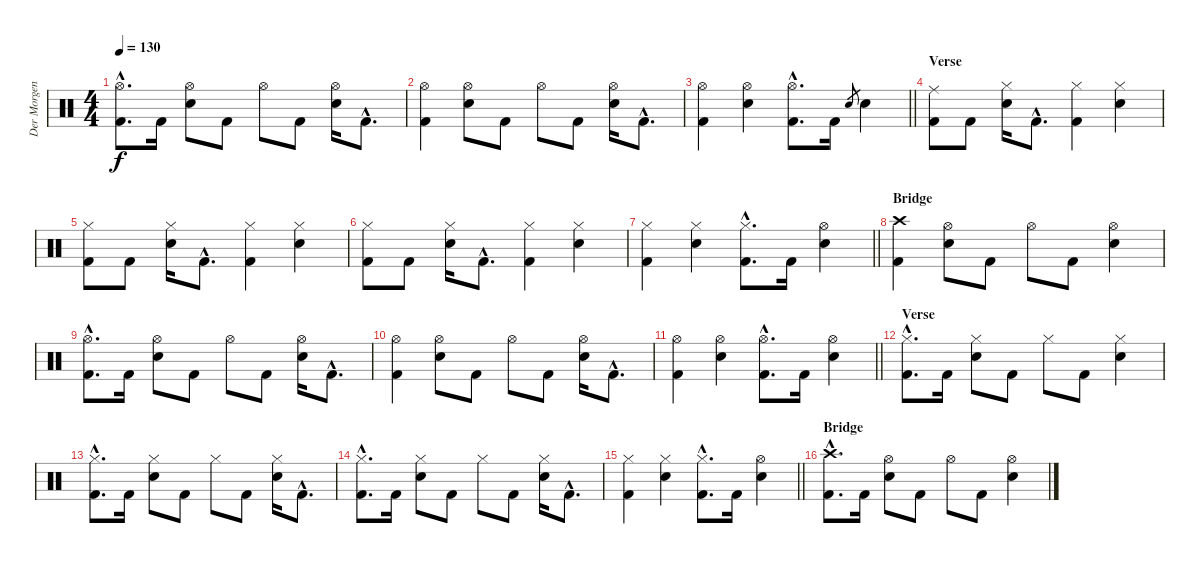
\track ("Der Morgenstern" "Der Morgen") {instrument percussion}
\staff {score}
\articulation defaults
\ts (4 4)
\tempo 130
\clef neutral
\ks c
("Hi-Hat (open)"{hac} "Kick (hit) 2"{hac}).8{d dy f} "Kick (hit) 2".16 ("Hi-Hat (open)" "Electric Snare (hit)").8 "Kick (hit) 2".8 "Hi-Hat (open)".8 "Kick (hit) 2".8 ("Hi-Hat (open)" "Electric Snare (hit)").16 "Kick (hit) 2"{hac}.8{d} |
("Hi-Hat (open)" "Kick (hit) 2").4 ("Hi-Hat (open)" "Electric Snare (hit)").8 "Kick (hit) 2".8 "Hi-Hat (open)".8 "Kick (hit) 2".8 ("Hi-Hat (open)" "Electric Snare (hit)").16 "Kick (hit) 2"{hac}.8{d} |
\barLineRight lightlight
("Hi-Hat (open)" "Kick (hit) 2").4 ("Hi-Hat (open)" "Electric Snare (hit)").4 ("Hi-Hat (open)"{hac} "Kick (hit) 2"{hac}).8{d} "Kick (hit) 2".16 "Electric Snare (hit)".8{gr} "Electric Snare (hit)".4 |
\section ("" "Verse")
("Ride (middle)" "Kick (hit) 2").8 "Kick (hit) 2".8 ("Hi-Hat (closed)" "Electric Snare (hit)").16 "Kick (hit) 2"{hac}.8{d} ("Hi-Hat (closed)" "Kick (hit) 2").4 ("Hi-Hat (closed)" "Electric Snare (hit)").4 |
("Hi-Hat (closed)" "Kick (hit) 2").8 "Kick (hit) 2".8 ("Hi-Hat (closed)" "Electric Snare (hit)").16 "Kick (hit) 2"{hac}.8{d} ("Hi-Hat (closed)" "Kick (hit) 2").4 ("Hi-Hat (closed)" "Electric Snare (hit)").4 |
("Hi-Hat (closed)" "Kick (hit) 2").8 "Kick (hit) 2".8 ("Hi-Hat (closed)" "Electric Snare (hit)").16 "Kick (hit) 2"{hac}.8{d} ("Hi-Hat (closed)" "Kick (hit) 2").4 ("Hi-Hat (closed)" "Electric Snare (hit)").4 |
\barLineRight lightlight
("Hi-Hat (closed)" "Kick (hit) 2").4 ("Hi-Hat (closed)" "Electric Snare (hit)").4 ("Hi-Hat (closed)"{hac} "Kick (hit) 2"{hac}).8{d} "Kick (hit) 2".16 ("Hi-Hat (open)" "Electric Snare (hit)").4 |
\section ("" "Bridge")
("Crash high (hit)" "Kick (hit) 2").4 ("Hi-Hat (open)" "Electric Snare (hit)").8 "Kick (hit) 2".8 "Hi-Hat (open)".8 "Kick (hit) 2".8 ("Hi-Hat (open)" "Electric Snare (hit)").4 |
("Hi-Hat (open)"{hac} "Kick (hit) 2"{hac}).8{d} "Kick (hit) 2".16 ("Hi-Hat (open)" "Electric Snare (hit)").8 "Kick (hit) 2".8 "Hi-Hat (open)".8 "Kick (hit) 2".8 ("Hi-Hat (open)" "Electric Snare (hit)").16 "Kick (hit) 2"{hac}.8{d} |
("Hi-Hat (open)" "Kick (hit) 2").4 ("Hi-Hat (open)" "Electric Snare (hit)").8 "Kick (hit) 2".8 "Hi-Hat (open)".8 "Kick (hit) 2".8 ("Hi-Hat (open)" "Electric Snare (hit)").16 "Kick (hit) 2"{hac}.8{d} |
\barLineRight lightlight
("Hi-Hat (open)" "Kick (hit) 2").4 ("Hi-Hat (open)" "Electric Snare (hit)").4 ("Hi-Hat (open)"{hac} "Kick (hit) 2"{hac}).8{d} "Kick (hit) 2".16 ("Hi-Hat (open)" "Electric Snare (hit)").4 |
\section ("" "Verse")
("Hi-Hat (closed)"{hac} "Kick (hit) 2"{hac}).8{d} "Kick (hit) 2".16 ("Hi-Hat (closed)" "Electric Snare (hit)").8 "Kick (hit) 2".8 "Hi-Hat (closed)".8 "Kick (hit) 2".8 ("Hi-Hat (closed)" "Electric Snare (hit)").4 |
("Hi-Hat (closed)"{hac} "Kick (hit) 2"{hac}).8{d} "Kick (hit) 2".16 ("Hi-Hat (closed)" "Electric Snare (hit)").8 "Kick (hit) 2".8 "Hi-Hat (closed)".8 "Kick (hit) 2".8 ("Hi-Hat (closed)" "Electric Snare (hit)").16 "Kick (hit) 2"{hac}.8{d} |
("Hi-Hat (closed)"{hac} "Kick (hit) 2"{hac}).8{d} "Kick (hit) 2".16 ("Hi-Hat (closed)" "Electric Snare (hit)").8 "Kick (hit) 2".8 "Hi-Hat (closed)".8 "Kick (hit) 2".8 ("Hi-Hat (closed)" "Electric Snare (hit)").16 "Kick (hit) 2"{hac}.8{d} |
\barLineRight lightlight
("Hi-Hat (closed)" "Kick (hit) 2").4 ("Hi-Hat (closed)" "Electric Snare (hit)").4 ("Hi-Hat (closed)"{hac} "Kick (hit) 2"{hac}).8{d} "Kick (hit) 2".16 ("Hi-Hat (open)" "Electric Snare (hit)").4 |
\section ("" "Bridge")
("Crash high (hit)"{hac} "Kick (hit) 2"{hac}).8{d} "Kick (hit) 2".16 ("Hi-Hat (open)" "Electric Snare (hit)").8 "Kick (hit) 2".8 "Hi-Hat (open)".8 "Kick (hit) 2".8 ("Hi-Hat (open)" "Electric Snare (hit)").4
